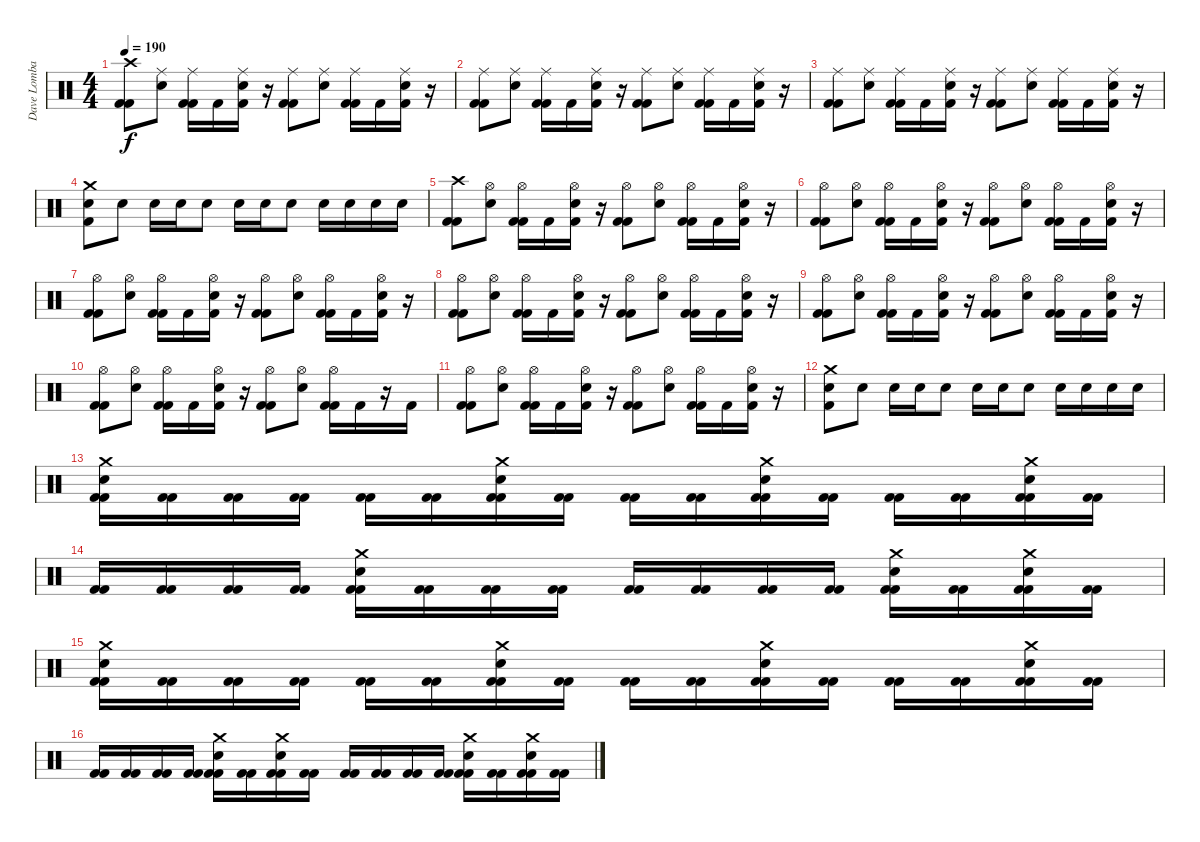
\track ("Dave Lombardo" "Dave Lomba") {instrument percussion}
\staff {score}
\articulation defaults
\ts (4 4)
\tempo 190
\clef neutral
\ks c
("Kick (hit) 2" "Crash high (hit)" "Kick (hit) 2").8{dy f} ("Ride (middle)" "Electric Snare (hit)").8 ("Kick (hit) 2" "Ride (middle)" "Kick (hit) 2").16 "Kick (hit) 2".16 ("Ride (middle)" "Electric Snare (hit)" "Kick (hit) 2").16 r.16 ("Kick (hit) 2" "Ride (middle)" "Kick (hit) 2").8 ("Ride (middle)" "Electric Snare (hit)").8 ("Kick (hit) 2" "Ride (middle)" "Kick (hit) 2").16 "Kick (hit) 2".16 ("Ride (middle)" "Electric Snare (hit)" "Kick (hit) 2").16 r.16 |
("Kick (hit) 2" "Ride (middle)" "Kick (hit) 2").8 ("Ride (middle)" "Electric Snare (hit)").8 ("Kick (hit) 2" "Ride (middle)" "Kick (hit) 2").16 "Kick (hit) 2".16 ("Ride (middle)" "Electric Snare (hit)" "Kick (hit) 2").16 r.16 ("Kick (hit) 2" "Ride (middle)" "Kick (hit) 2").8 ("Ride (middle)" "Electric Snare (hit)").8 ("Kick (hit) 2" "Ride (middle)" "Kick (hit) 2").16 "Kick (hit) 2".16 ("Ride (middle)" "Electric Snare (hit)" "Kick (hit) 2").16 r.16 |
("Kick (hit) 2" "Ride (middle)" "Kick (hit) 2").8 ("Ride (middle)" "Electric Snare (hit)").8 ("Kick (hit) 2" "Ride (middle)" "Kick (hit) 2").16 "Kick (hit) 2".16 ("Ride (middle)" "Electric Snare (hit)" "Kick (hit) 2").16 r.16 ("Kick (hit) 2" "Ride (middle)" "Kick (hit) 2").8 ("Ride (middle)" "Electric Snare (hit)").8 ("Kick (hit) 2" "Ride (middle)" "Kick (hit) 2").16 "Kick (hit) 2".16 ("Ride (middle)" "Electric Snare (hit)" "Kick (hit) 2").16 r.16 |
("Crash medium (hit)" "Electric Snare (hit)" "Kick (hit) 2").8 "Electric Snare (hit)".8 "Electric Snare (hit)".16 "Electric Snare (hit)".16 "Electric Snare (hit)".8 "Electric Snare (hit)".16 "Electric Snare (hit)".16 "Electric Snare (hit)".8 "Electric Snare (hit)".16 "Electric Snare (hit)".16 "Electric Snare (hit)".16 "Electric Snare (hit)".16 |
("Kick (hit) 2" "Crash high (hit)" "Kick (hit) 2").8 ("Hi-Hat (open)" "Electric Snare (hit)").8 ("Kick (hit) 2" "Hi-Hat (open)" "Kick (hit) 2").16 "Kick (hit) 2".16 ("Hi-Hat (open)" "Electric Snare (hit)" "Kick (hit) 2").16 r.16 ("Kick (hit) 2" "Hi-Hat (open)" "Kick (hit) 2").8 ("Hi-Hat (open)" "Electric Snare (hit)").8 ("Kick (hit) 2" "Hi-Hat (open)" "Kick (hit) 2").16 "Kick (hit) 2".16 ("Hi-Hat (open)" "Electric Snare (hit)" "Kick (hit) 2").16 r.16 |
("Kick (hit) 2" "Hi-Hat (open)" "Kick (hit) 2").8 ("Hi-Hat (open)" "Electric Snare (hit)").8 ("Kick (hit) 2" "Hi-Hat (open)" "Kick (hit) 2").16 "Kick (hit) 2".16 ("Hi-Hat (open)" "Electric Snare (hit)" "Kick (hit) 2").16 r.16 ("Kick (hit) 2" "Hi-Hat (open)" "Kick (hit) 2").8 ("Hi-Hat (open)" "Electric Snare (hit)").8 ("Kick (hit) 2" "Hi-Hat (open)" "Kick (hit) 2").16 "Kick (hit) 2".16 ("Hi-Hat (open)" "Electric Snare (hit)" "Kick (hit) 2").16 r.16 |
("Kick (hit) 2" "Hi-Hat (open)" "Kick (hit) 2").8 ("Hi-Hat (open)" "Electric Snare (hit)").8 ("Kick (hit) 2" "Hi-Hat (open)" "Kick (hit) 2").16 "Kick (hit) 2".16 ("Hi-Hat (open)" "Electric Snare (hit)" "Kick (hit) 2").16 r.16 ("Kick (hit) 2" "Hi-Hat (open)" "Kick (hit) 2").8 ("Hi-Hat (open)" "Electric Snare (hit)").8 ("Kick (hit) 2" "Hi-Hat (open)" "Kick (hit) 2").16 "Kick (hit) 2".16 ("Hi-Hat (open)" "Electric Snare (hit)" "Kick (hit) 2").16 r.16 |
("Kick (hit) 2" "Hi-Hat (open)" "Kick (hit) 2").8 ("Hi-Hat (open)" "Electric Snare (hit)").8 ("Kick (hit) 2" "Hi-Hat (open)" "Kick (hit) 2").16 "Kick (hit) 2".16 ("Hi-Hat (open)" "Electric Snare (hit)" "Kick (hit) 2").16 r.16 ("Kick (hit) 2" "Hi-Hat (open)" "Kick (hit) 2").8 ("Hi-Hat (open)" "Electric Snare (hit)").8 ("Kick (hit) 2" "Hi-Hat (open)" "Kick (hit) 2").16 "Kick (hit) 2".16 ("Hi-Hat (open)" "Electric Snare (hit)" "Kick (hit) 2").16 r.16 |
("Kick (hit) 2" "Hi-Hat (open)" "Kick (hit) 2").8 ("Hi-Hat (open)" "Electric Snare (hit)").8 ("Kick (hit) 2" "Hi-Hat (open)" "Kick (hit) 2").16 "Kick (hit) 2".16 ("Hi-Hat (open)" "Electric Snare (hit)" "Kick (hit) 2").16 r.16 ("Kick (hit) 2" "Hi-Hat (open)" "Kick (hit) 2").8 ("Hi-Hat (open)" "Electric Snare (hit)").8 ("Kick (hit) 2" "Hi-Hat (open)" "Kick (hit) 2").16 "Kick (hit) 2".16 ("Hi-Hat (open)" "Electric Snare (hit)" "Kick (hit) 2").16 r.16 |
("Kick (hit) 2" "Hi-Hat (open)" "Kick (hit) 2").8 ("Hi-Hat (open)" "Electric Snare (hit)").8 ("Kick (hit) 2" "Hi-Hat (open)" "Kick (hit) 2").16 "Kick (hit) 2".16 ("Hi-Hat (open)" "Electric Snare (hit)" "Kick (hit) 2").16 r.16 ("Kick (hit) 2" "Hi-Hat (open)" "Kick (hit) 2").8 ("Hi-Hat (open)" "Electric Snare (hit)").8 ("Kick (hit) 2" "Hi-Hat (open)" "Kick (hit) 2").16 "Kick (hit) 2".16 r.16 "Kick (hit) 2".16 |
("Kick (hit) 2" "Hi-Hat (open)" "Kick (hit) 2").8 ("Hi-Hat (open)" "Electric Snare (hit)").8 ("Kick (hit) 2" "Hi-Hat (open)" "Kick (hit) 2").16 "Kick (hit) 2".16 ("Hi-Hat (open)" "Electric Snare (hit)" "Kick (hit) 2").16 r.16 ("Kick (hit) 2" "Hi-Hat (open)" "Kick (hit) 2").8 ("Hi-Hat (open)" "Electric Snare (hit)").8 ("Kick (hit) 2" "Hi-Hat (open)" "Kick (hit) 2").16 "Kick (hit) 2".16 ("Hi-Hat (open)" "Electric Snare (hit)" "Kick (hit) 2").16 r.16 |
("Crash medium (hit)" "Electric Snare (hit)" "Kick (hit) 2").8 "Electric Snare (hit)".8 "Electric Snare (hit)".16 "Electric Snare (hit)".16 "Electric Snare (hit)".8 "Electric Snare (hit)".16 "Electric Snare (hit)".16 "Electric Snare (hit)".8 "Electric Snare (hit)".16 "Electric Snare (hit)".16 "Electric Snare (hit)".16 "Electric Snare (hit)".16 |
("Kick (hit) 2" "Crash medium (hit)" "Electric Snare (hit)" "Kick (hit) 2").16 ("Kick (hit) 2" "Kick (hit) 2").16 ("Kick (hit) 2" "Kick (hit) 2").16 ("Kick (hit) 2" "Kick (hit) 2").16 ("Kick (hit) 2" "Kick (hit) 2").16 ("Kick (hit) 2" "Kick (hit) 2").16 ("Kick (hit) 2" "Crash medium (hit)" "Electric Snare (hit)" "Kick (hit) 2").16 ("Kick (hit) 2" "Kick (hit) 2").16 ("Kick (hit) 2" "Kick (hit) 2").16 ("Kick (hit) 2" "Kick (hit) 2").16 ("Kick (hit) 2" "Crash medium (hit)" "Electric Snare (hit)" "Kick (hit) 2").16 ("Kick (hit) 2" "Kick (hit) 2").16 ("Kick (hit) 2" "Kick (hit) 2").16 ("Kick (hit) 2" "Kick (hit) 2").16 ("Kick (hit) 2" "Crash medium (hit)" "Electric Snare (hit)" "Kick (hit) 2").16 ("Kick (hit) 2" "Kick (hit) 2").16 |
("Kick (hit) 2" "Kick (hit) 2").16 ("Kick (hit) 2" "Kick (hit) 2").16 ("Kick (hit) 2" "Kick (hit) 2").16 ("Kick (hit) 2" "Kick (hit) 2").16 ("Kick (hit) 2" "Crash medium (hit)" "Electric Snare (hit)" "Kick (hit) 2").16 ("Kick (hit) 2" "Kick (hit) 2").16 ("Kick (hit) 2" "Kick (hit) 2").16 ("Kick (hit) 2" "Kick (hit) 2").16 ("Kick (hit) 2" "Kick (hit) 2").16 ("Kick (hit) 2" "Kick (hit) 2").16 ("Kick (hit) 2" "Kick (hit) 2").16 ("Kick (hit) 2" "Kick (hit) 2").16 ("Kick (hit) 2" "Crash medium (hit)" "Electric Snare (hit)" "Kick (hit) 2").16 ("Kick (hit) 2" "Kick (hit) 2").16 ("Kick (hit) 2" "Crash medium (hit)" "Electric Snare (hit)" "Kick (hit) 2").16 ("Kick (hit) 2" "Kick (hit) 2").16 |
("Kick (hit) 2" "Crash medium (hit)" "Electric Snare (hit)" "Kick (hit) 2").16 ("Kick (hit) 2" "Kick (hit) 2").16 ("Kick (hit) 2" "Kick (hit) 2").16 ("Kick (hit) 2" "Kick (hit) 2").16 ("Kick (hit) 2" "Kick (hit) 2").16 ("Kick (hit) 2" "Kick (hit) 2").16 ("Kick (hit) 2" "Crash medium (hit)" "Electric Snare (hit)" "Kick (hit) 2").16 ("Kick (hit) 2" "Kick (hit) 2").16 ("Kick (hit) 2" "Kick (hit) 2").16 ("Kick (hit) 2" "Kick (hit) 2").16 ("Kick (hit) 2" "Crash medium (hit)" "Electric Snare (hit)" "Kick (hit) 2").16 ("Kick (hit) 2" "Kick (hit) 2").16 ("Kick (hit) 2" "Kick (hit) 2").16 ("Kick (hit) 2" "Kick (hit) 2").16 ("Kick (hit) 2" "Crash medium (hit)" "Electric Snare (hit)" "Kick (hit) 2").16 ("Kick (hit) 2" "Kick (hit) 2").16 |
("Kick (hit) 2" "Kick (hit) 2").16 ("Kick (hit) 2" "Kick (hit) 2").16 ("Kick (hit) 2" "Kick (hit) 2").16 ("Kick (hit) 2" "Kick (hit) 2").16 ("Kick (hit) 2" "Crash medium (hit)" "Electric Snare (hit)" "Kick (hit) 2").16 ("Kick (hit) 2" "Kick (hit) 2").16 ("Kick (hit) 2" "Crash medium (hit)" "Electric Snare (hit)" "Kick (hit) 2").16 ("Kick (hit) 2" "Kick (hit) 2").16 ("Kick (hit) 2" "Kick (hit) 2").16 ("Kick (hit) 2" "Kick (hit) 2").16 ("Kick (hit) 2" "Kick (hit) 2").16 ("Kick (hit) 2" "Kick (hit) 2").16 ("Kick (hit) 2" "Crash medium (hit)" "Electric Snare (hit)" "Kick (hit) 2").16 ("Kick (hit) 2" "Kick (hit) 2").16 ("Kick (hit) 2" "Crash medium (hit)" "Electric Snare (hit)" "Kick (hit) 2").16 ("Kick (hit) 2" "Kick (hit) 2").16
